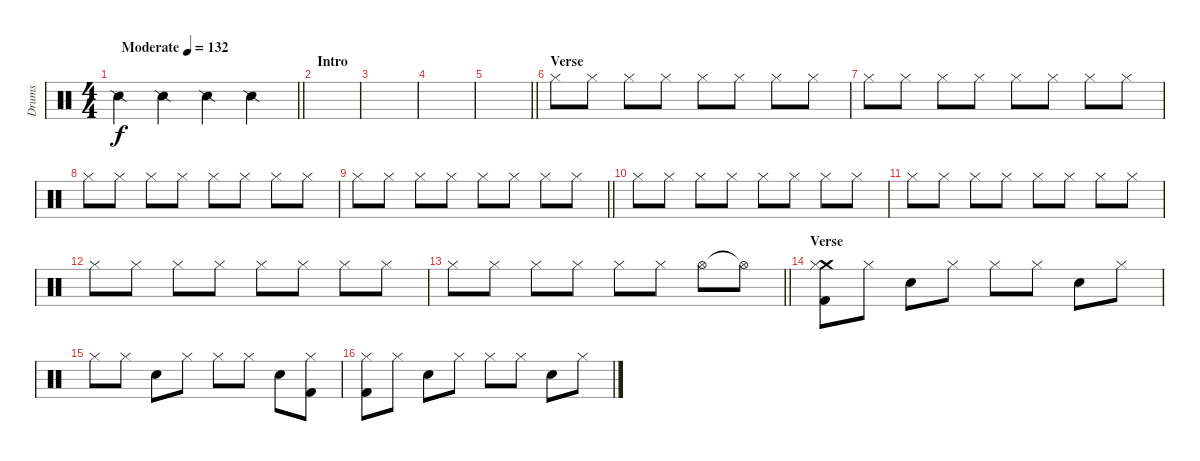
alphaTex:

\track ("Drums" "Drums") {instrument percussion}
\staff
\articulation defaults
\ts (4 4)
\tempo (132 "Moderate")
\clef neutral
\barLineRight lightlight
\ks c "Snare (side stick) 2".4{dy f} "Snare (side stick) 2".4 "Snare (side stick) 2".4 "Snare (side stick) 2".4
|
\section ("" "Intro")
|
|
|
\barLineRight lightlight
|
\section ("" "Verse")
"Hi-Hat (closed)".8 "Hi-Hat (closed)".8 "Hi-Hat (closed)".8 "Hi-Hat (closed)".8 "Hi-Hat (closed)".8 "Hi-Hat (closed)".8 "Hi-Hat (closed)".8 "Hi-Hat (closed)".8 |
"Hi-Hat (closed)".8 "Hi-Hat (closed)".8 "Hi-Hat (closed)".8 "Hi-Hat (closed)".8 "Hi-Hat (closed)".8 "Hi-Hat (closed)".8 "Hi-Hat (closed)".8 "Hi-Hat (closed)".8 |
"Hi-Hat (closed)".8 "Hi-Hat (closed)".8 "Hi-Hat (closed)".8 "Hi-Hat (closed)".8 "Hi-Hat (closed)".8 "Hi-Hat (closed)".8 "Hi-Hat (closed)".8 "Hi-Hat (closed)".8 |
\barLineRight lightlight "Hi-Hat (closed)".8 "Hi-Hat (closed)".8 "Hi-Hat (closed)".8 "Hi-Hat (closed)".8 "Hi-Hat (closed)".8 "Hi-Hat (closed)".8 "Hi-Hat (closed)".8 "Hi-Hat (closed)".8
|
"Hi-Hat (closed)".8 "Hi-Hat (closed)".8 "Hi-Hat (closed)".8 "Hi-Hat (closed)".8 "Hi-Hat (closed)".8 "Hi-Hat (closed)".8 "Hi-Hat (closed)".8 "Hi-Hat (closed)".8 |
"Hi-Hat (closed)".8 "Hi-Hat (closed)".8 "Hi-Hat (closed)".8 "Hi-Hat (closed)".8 "Hi-Hat (closed)".8 "Hi-Hat (closed)".8 "Hi-Hat (closed)".8 "Hi-Hat (closed)".8 |
"Hi-Hat (closed)".8 "Hi-Hat (closed)".8 "Hi-Hat (closed)".8 "Hi-Hat (closed)".8 "Hi-Hat (closed)".8 "Hi-Hat (closed)".8 "Hi-Hat (closed)".8 "Hi-Hat (closed)".8 |
\barLineRight lightlight "Hi-Hat (closed)".8 "Hi-Hat (closed)".8 "Hi-Hat (closed)".8 "Hi-Hat (closed)".8 "Hi-Hat (closed)".8 "Hi-Hat (closed)".8 "Hi-Hat (open)".8 "Hi-Hat (open)"{t}.8
|
\section ("" "Verse")
("Crash medium (hit)" "Hi-Hat (closed)" "Kick (hit) 2").8 "Hi-Hat (closed)".8 "Snare (hit) 2".8 "Hi-Hat (closed)".8 "Hi-Hat (closed)".8 "Hi-Hat (closed)".8 "Snare (hit) 2".8 "Hi-Hat (closed)".8 |
"Hi-Hat (closed)".8 "Hi-Hat (closed)".8 "Snare (hit) 2".8 "Hi-Hat (closed)".8 "Hi-Hat (closed)".8 "Hi-Hat (closed)".8 "Snare (hit) 2".8 ("Hi-Hat (closed)" "Kick (hit) 2").8 |
("Hi-Hat (closed)" "Kick (hit) 2").8 "Hi-Hat (closed)".8 "Snare (hit) 2".8 "Hi-Hat (closed)".8 "Hi-Hat (closed)".8 "Hi-Hat (closed)".8 "Snare (hit) 2".8 "Hi-Hat (closed)".8
